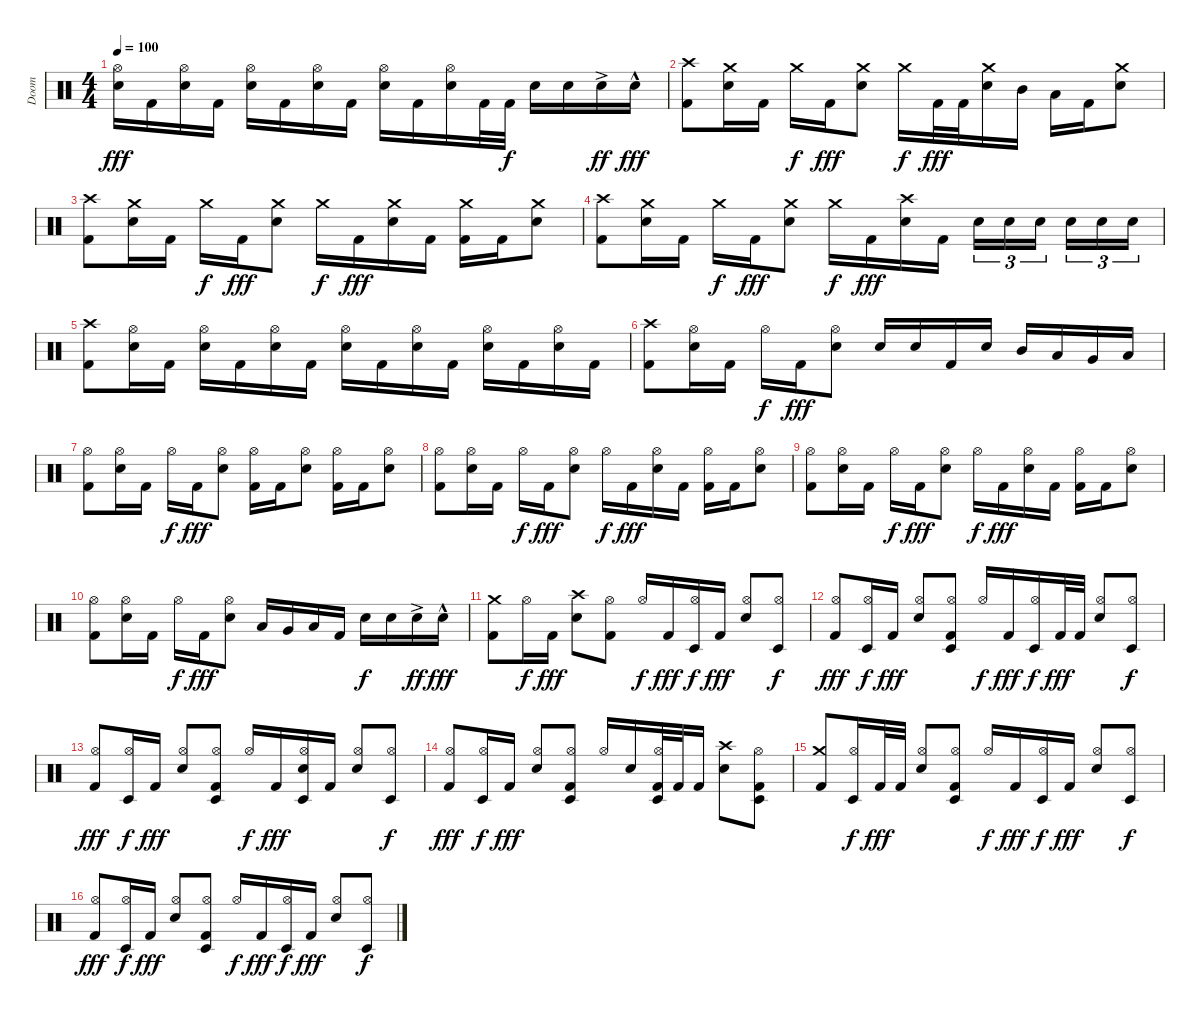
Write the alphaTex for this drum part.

\track ("Doom" "Doom") {instrument percussion}
\staff {score}
\articulation defaults
\ts (4 4)
\tempo 100
\clef neutral
\ks c
("Hi-Hat (open)" "Electric Snare (hit)").16{dy fff} "Kick (hit) 2".16 ("Hi-Hat (open)" "Electric Snare (hit)").16 "Kick (hit) 2".16 ("Hi-Hat (open)" "Electric Snare (hit)").16 "Kick (hit) 2".16 ("Hi-Hat (open)" "Electric Snare (hit)").16 "Kick (hit) 2".16 ("Hi-Hat (open)" "Electric Snare (hit)").16 "Kick (hit) 2".16 ("Hi-Hat (open)" "Electric Snare (hit)").16 "Kick (hit) 2".32 "Kick (hit) 2".32{dy f} "Electric Snare (hit)".16 "Electric Snare (hit)".16 "Electric Snare (hit)"{ac}.16{dy ff} "Electric Snare (hit)"{hac}.16{dy fff} |
("Crash high (hit)" "Kick (hit) 2").8 ("Crash medium (hit)" "Electric Snare (hit)").16 "Kick (hit) 2".16 "Crash medium (hit)".16{dy f} "Kick (hit) 2".16{dy fff} ("Crash medium (hit)" "Electric Snare (hit)").8 "Crash medium (hit)".16{dy f} "Kick (hit) 2".32{dy fff} "Kick (hit) 2".32 ("Crash medium (hit)" "Electric Snare (hit)").16 "Mid Tom (hit)".16 "Low Tom (hit)".16 "Kick (hit) 2".16 ("Crash medium (hit)" "Electric Snare (hit)").8 |
("Crash high (hit)" "Kick (hit) 2").8 ("Crash medium (hit)" "Electric Snare (hit)").16 "Kick (hit) 2".16 "Crash medium (hit)".16{dy f} "Kick (hit) 2".16{dy fff} ("Crash medium (hit)" "Electric Snare (hit)").8 "Crash medium (hit)".16{dy f} "Kick (hit) 2".16{dy fff} ("Crash medium (hit)" "Electric Snare (hit)").16 "Kick (hit) 2".16 ("Crash medium (hit)" "Kick (hit) 2").16 "Kick (hit) 2".16 ("Crash medium (hit)" "Electric Snare (hit)").8 |
("Crash high (hit)" "Kick (hit) 2").8 ("Crash medium (hit)" "Electric Snare (hit)").16 "Kick (hit) 2".16 "Crash medium (hit)".16{dy f} "Kick (hit) 2".16{dy fff} ("Crash medium (hit)" "Electric Snare (hit)").8 "Crash medium (hit)".16{dy f} "Kick (hit) 2".16{dy fff} ("Crash high (hit)" "Electric Snare (hit)").16 "Kick (hit) 2".16 "Electric Snare (hit)".16{tu (3 2)} "Electric Snare (hit)".16{tu (3 2)} "Electric Snare (hit)".16{tu (3 2) beam splitsecondary} "Electric Snare (hit)".16{tu (3 2)} "Electric Snare (hit)".16{tu (3 2)} "Electric Snare (hit)".16{tu (3 2)} |
("Crash high (hit)" "Kick (hit) 2").8 ("Hi-Hat (open)" "Electric Snare (hit)").16 "Kick (hit) 2".16 ("Hi-Hat (open)" "Electric Snare (hit)").16 "Kick (hit) 2".16 ("Hi-Hat (open)" "Electric Snare (hit)").16 "Kick (hit) 2".16 ("Hi-Hat (open)" "Electric Snare (hit)").16 "Kick (hit) 2".16 ("Hi-Hat (open)" "Electric Snare (hit)").16 "Kick (hit) 2".16 ("Hi-Hat (open)" "Electric Snare (hit)").16 "Kick (hit) 2".16 ("Hi-Hat (open)" "Electric Snare (hit)").16 "Kick (hit) 2".16 |
("Crash high (hit)" "Kick (hit) 2").8 ("Hi-Hat (open)" "Electric Snare (hit)").16 "Kick (hit) 2".16 "Hi-Hat (open)".16{dy f} "Kick (hit) 2".16{dy fff} ("Hi-Hat (open)" "Electric Snare (hit)").8 "Electric Snare (hit)".16 "Electric Snare (hit)".16 "Kick (hit) 2".16 "Electric Snare (hit)".16 "Mid Tom (hit)".16 "Low Tom (hit)".16 "Very Low Tom (hit)".16 "Low Floor Tom (hit)".16 |
("Hi-Hat (open)" "Kick (hit) 2").8 ("Hi-Hat (open)" "Electric Snare (hit)").16 "Kick (hit) 2".16 "Hi-Hat (open)".16{dy f} "Kick (hit) 2".16{dy fff} ("Hi-Hat (open)" "Electric Snare (hit)").8 ("Hi-Hat (open)" "Kick (hit) 2").16 "Kick (hit) 2".16 ("Hi-Hat (open)" "Electric Snare (hit)").8 ("Hi-Hat (open)" "Kick (hit) 2").16 "Kick (hit) 2".16 ("Hi-Hat (open)" "Electric Snare (hit)").8 |
("Hi-Hat (open)" "Kick (hit) 2").8 ("Hi-Hat (open)" "Electric Snare (hit)").16 "Kick (hit) 2".16 "Hi-Hat (open)".16{dy f} "Kick (hit) 2".16{dy fff} ("Hi-Hat (open)" "Electric Snare (hit)").8 "Hi-Hat (open)".16{dy f} "Kick (hit) 2".16{dy fff} ("Hi-Hat (open)" "Electric Snare (hit)").16 "Kick (hit) 2".16 ("Hi-Hat (open)" "Kick (hit) 2").16 "Kick (hit) 2".16 ("Hi-Hat (open)" "Electric Snare (hit)").8 |
("Hi-Hat (open)" "Kick (hit) 2").8 ("Hi-Hat (open)" "Electric Snare (hit)").16 "Kick (hit) 2".16 "Hi-Hat (open)".16{dy f} "Kick (hit) 2".16{dy fff} ("Hi-Hat (open)" "Electric Snare (hit)").8 "Hi-Hat (open)".16{dy f} "Kick (hit) 2".16{dy fff} ("Hi-Hat (open)" "Electric Snare (hit)").16 "Kick (hit) 2".16 ("Hi-Hat (open)" "Kick (hit) 2").16 "Kick (hit) 2".16 ("Hi-Hat (open)" "Electric Snare (hit)").8 |
("Hi-Hat (open)" "Kick (hit) 2").8 ("Hi-Hat (open)" "Electric Snare (hit)").16 "Kick (hit) 2".16 "Hi-Hat (open)".16{dy f} "Kick (hit) 2".16{dy fff} ("Hi-Hat (open)" "Electric Snare (hit)").8 "Low Tom (hit)".16 "Very Low Tom (hit)".16 "Low Floor Tom (hit)".16 "Kick (hit) 2".16 "Electric Snare (hit)".16{dy f} "Electric Snare (hit)".16 "Electric Snare (hit)"{ac}.16{dy ff} "Electric Snare (hit)"{hac}.16{dy fff} |
("Crash medium (hit)" "Kick (hit) 2").8 "Hi-Hat (open)".16{dy f} "Kick (hit) 2".16{dy fff} ("Crash high (hit)" "Electric Snare (hit)").8 ("Hi-Hat (open)" "Kick (hit) 2").8 "Hi-Hat (open)".16{dy f} "Kick (hit) 2".16{dy fff} ("Hi-Hat (open)" "Timbale low (hit)").16{dy f} "Kick (hit) 2".16{dy fff} ("Hi-Hat (open)" "Electric Snare (hit)").8 ("Hi-Hat (open)" "Timbale low (hit)").8{dy f} |
("Hi-Hat (open)" "Kick (hit) 2").8{dy fff} ("Hi-Hat (open)" "Timbale low (hit)").16{dy f} "Kick (hit) 2".16{dy fff} ("Hi-Hat (open)" "Electric Snare (hit)").8 ("Hi-Hat (open)" "Timbale low (hit)" "Kick (hit) 2").8 "Hi-Hat (open)".16{dy f} "Kick (hit) 2".16{dy fff} ("Hi-Hat (open)" "Timbale low (hit)").16{dy f} "Kick (hit) 2".32{dy fff} "Kick (hit) 2".32 ("Hi-Hat (open)" "Electric Snare (hit)").8 ("Hi-Hat (open)" "Timbale low (hit)").8{dy f} |
("Hi-Hat (open)" "Kick (hit) 2").8{dy fff} ("Hi-Hat (open)" "Timbale low (hit)").16{dy f} "Kick (hit) 2".16{dy fff} ("Hi-Hat (open)" "Electric Snare (hit)").8 ("Hi-Hat (open)" "Timbale low (hit)" "Kick (hit) 2").8 "Hi-Hat (open)".16{dy f} "Kick (hit) 2".16{dy fff} ("Hi-Hat (open)" "Electric Snare (hit)" "Timbale low (hit)").16 "Kick (hit) 2".16 ("Hi-Hat (open)" "Electric Snare (hit)").8 ("Hi-Hat (open)" "Timbale low (hit)").8{dy f} |
("Hi-Hat (open)" "Kick (hit) 2").8{dy fff} ("Hi-Hat (open)" "Timbale low (hit)").16{dy f} "Kick (hit) 2".16{dy fff} ("Hi-Hat (open)" "Electric Snare (hit)").8 ("Hi-Hat (open)" "Timbale low (hit)" "Kick (hit) 2").8 "Hi-Hat (open)".16 "Electric Snare (hit)".16 ("Hi-Hat (open)" "Timbale low (hit)" "Kick (hit) 2").32 "Kick (hit) 2".32 "Kick (hit) 2".16 ("Crash high (hit)" "Electric Snare (hit)").8 ("Hi-Hat (open)" "Timbale low (hit)" "Kick (hit) 2").8 |
("Crash medium (hit)" "Kick (hit) 2").8 ("Hi-Hat (open)" "Timbale low (hit)").16{dy f} "Kick (hit) 2".32{dy fff} "Kick (hit) 2".32 ("Hi-Hat (open)" "Electric Snare (hit)").8 ("Hi-Hat (open)" "Timbale low (hit)" "Kick (hit) 2").8 "Hi-Hat (open)".16{dy f} "Kick (hit) 2".16{dy fff} ("Hi-Hat (open)" "Timbale low (hit)").16{dy f} "Kick (hit) 2".16{dy fff} ("Hi-Hat (open)" "Electric Snare (hit)").8 ("Hi-Hat (open)" "Timbale low (hit)").8{dy f} |
("Hi-Hat (open)" "Kick (hit) 2").8{dy fff} ("Hi-Hat (open)" "Timbale low (hit)").16{dy f} "Kick (hit) 2".16{dy fff} ("Hi-Hat (open)" "Electric Snare (hit)").8 ("Hi-Hat (open)" "Timbale low (hit)" "Kick (hit) 2").8 "Hi-Hat (open)".16{dy f} "Kick (hit) 2".16{dy fff} ("Hi-Hat (open)" "Timbale low (hit)").16{dy f} "Kick (hit) 2".16{dy fff} ("Hi-Hat (open)" "Electric Snare (hit)").8 ("Hi-Hat (open)" "Timbale low (hit)").8{dy f}
